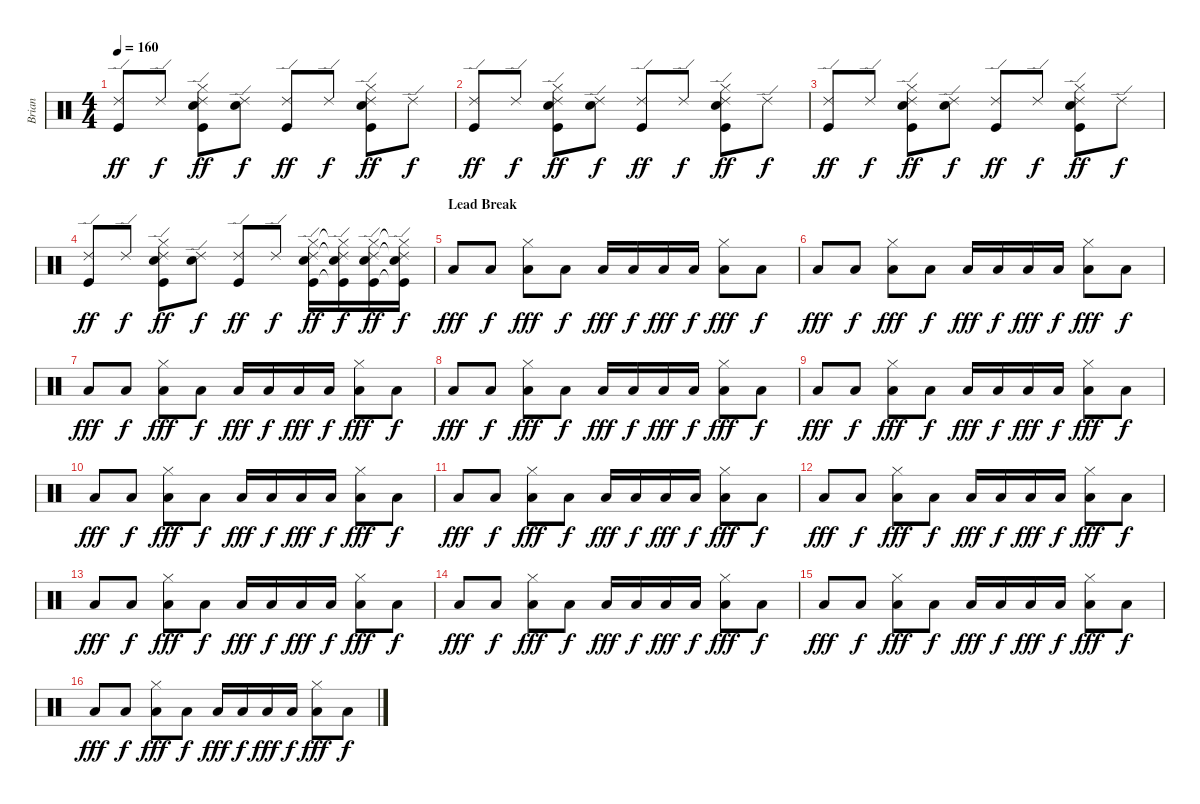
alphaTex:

\track ("Brian" "Brian") {instrument percussion}
\staff {score}
\articulation defaults
\ts (4 4)
\tempo 160
\clef neutral
\ks c
("Ride (edge) 2" "Kick (hit)").8{dy ff} "Ride (edge) 2".8{dy f} ("Ride (edge) 2" "Hi-Hat (closed)" "Snare (hit) 2" "Kick (hit)").8{dy ff} ("Ride (edge) 2" "Snare (hit) 2").8{dy f} ("Ride (edge) 2" "Kick (hit)").8{dy ff} "Ride (edge) 2".8{dy f} ("Ride (edge) 2" "Hi-Hat (closed)" "Snare (hit) 2" "Kick (hit)").8{dy ff} "Ride (edge) 2".8{dy f} |
("Ride (edge) 2" "Kick (hit)").8{dy ff} "Ride (edge) 2".8{dy f} ("Ride (edge) 2" "Hi-Hat (closed)" "Snare (hit) 2" "Kick (hit)").8{dy ff} ("Ride (edge) 2" "Snare (hit) 2").8{dy f} ("Ride (edge) 2" "Kick (hit)").8{dy ff} "Ride (edge) 2".8{dy f} ("Ride (edge) 2" "Hi-Hat (closed)" "Snare (hit) 2" "Kick (hit)").8{dy ff} "Ride (edge) 2".8{dy f} |
("Ride (edge) 2" "Kick (hit)").8{dy ff} "Ride (edge) 2".8{dy f} ("Ride (edge) 2" "Hi-Hat (closed)" "Snare (hit) 2" "Kick (hit)").8{dy ff} ("Ride (edge) 2" "Snare (hit) 2").8{dy f} ("Ride (edge) 2" "Kick (hit)").8{dy ff} "Ride (edge) 2".8{dy f} ("Ride (edge) 2" "Hi-Hat (closed)" "Snare (hit) 2" "Kick (hit)").8{dy ff} "Ride (edge) 2".8{dy f} |
("Ride (edge) 2" "Kick (hit)").8{dy ff} "Ride (edge) 2".8{dy f} ("Ride (edge) 2" "Hi-Hat (closed)" "Snare (hit) 2" "Kick (hit)").8{dy ff} ("Ride (edge) 2" "Snare (hit) 2").8{dy f} ("Ride (edge) 2" "Kick (hit)").8{dy ff} "Ride (edge) 2".8{dy f} ("Ride (edge) 2" "Hi-Hat (closed)" "Snare (hit) 2" "Kick (hit)").16{dy ff} ("Ride (edge) 2"{t} "Hi-Hat (closed)"{t} "Snare (hit) 2" "Kick (hit)"{t}).16{dy f} ("Ride (edge) 2" "Hi-Hat (closed)" "Snare (hit) 2" "Kick (hit)").16{dy ff} ("Ride (edge) 2"{t} "Hi-Hat (closed)"{t} "Snare (hit) 2" "Kick (hit)"{t}).16{dy f} |
\section ("" "Lead Break")
"Low Tom (hit)".8{dy fff} "Low Tom (hit)".8{dy f} ("Hi-Hat (closed)" "Low Tom (hit)").8{dy fff} "Low Tom (hit)".8{dy f} "Low Tom (hit)".16{dy fff} "Low Tom (hit)".16{dy f} "Low Tom (hit)".16{dy fff} "Low Tom (hit)".16{dy f} ("Hi-Hat (closed)" "Low Tom (hit)").8{dy fff} "Low Tom (hit)".8{dy f} |
"Low Tom (hit)".8{dy fff} "Low Tom (hit)".8{dy f} ("Hi-Hat (closed)" "Low Tom (hit)").8{dy fff} "Low Tom (hit)".8{dy f} "Low Tom (hit)".16{dy fff} "Low Tom (hit)".16{dy f} "Low Tom (hit)".16{dy fff} "Low Tom (hit)".16{dy f} ("Hi-Hat (closed)" "Low Tom (hit)").8{dy fff} "Low Tom (hit)".8{dy f} |
"Low Tom (hit)".8{dy fff} "Low Tom (hit)".8{dy f} ("Hi-Hat (closed)" "Low Tom (hit)").8{dy fff} "Low Tom (hit)".8{dy f} "Low Tom (hit)".16{dy fff} "Low Tom (hit)".16{dy f} "Low Tom (hit)".16{dy fff} "Low Tom (hit)".16{dy f} ("Hi-Hat (closed)" "Low Tom (hit)").8{dy fff} "Low Tom (hit)".8{dy f} |
"Low Tom (hit)".8{dy fff} "Low Tom (hit)".8{dy f} ("Hi-Hat (closed)" "Low Tom (hit)").8{dy fff} "Low Tom (hit)".8{dy f} "Low Tom (hit)".16{dy fff} "Low Tom (hit)".16{dy f} "Low Tom (hit)".16{dy fff} "Low Tom (hit)".16{dy f} ("Hi-Hat (closed)" "Low Tom (hit)").8{dy fff} "Low Tom (hit)".8{dy f} |
"Low Tom (hit)".8{dy fff} "Low Tom (hit)".8{dy f} ("Hi-Hat (closed)" "Low Tom (hit)").8{dy fff} "Low Tom (hit)".8{dy f} "Low Tom (hit)".16{dy fff} "Low Tom (hit)".16{dy f} "Low Tom (hit)".16{dy fff} "Low Tom (hit)".16{dy f} ("Hi-Hat (closed)" "Low Tom (hit)").8{dy fff} "Low Tom (hit)".8{dy f} |
"Low Tom (hit)".8{dy fff} "Low Tom (hit)".8{dy f} ("Hi-Hat (closed)" "Low Tom (hit)").8{dy fff} "Low Tom (hit)".8{dy f} "Low Tom (hit)".16{dy fff} "Low Tom (hit)".16{dy f} "Low Tom (hit)".16{dy fff} "Low Tom (hit)".16{dy f} ("Hi-Hat (closed)" "Low Tom (hit)").8{dy fff} "Low Tom (hit)".8{dy f} |
"Low Tom (hit)".8{dy fff} "Low Tom (hit)".8{dy f} ("Hi-Hat (closed)" "Low Tom (hit)").8{dy fff} "Low Tom (hit)".8{dy f} "Low Tom (hit)".16{dy fff} "Low Tom (hit)".16{dy f} "Low Tom (hit)".16{dy fff} "Low Tom (hit)".16{dy f} ("Hi-Hat (closed)" "Low Tom (hit)").8{dy fff} "Low Tom (hit)".8{dy f} |
"Low Tom (hit)".8{dy fff} "Low Tom (hit)".8{dy f} ("Hi-Hat (closed)" "Low Tom (hit)").8{dy fff} "Low Tom (hit)".8{dy f} "Low Tom (hit)".16{dy fff} "Low Tom (hit)".16{dy f} "Low Tom (hit)".16{dy fff} "Low Tom (hit)".16{dy f} ("Hi-Hat (closed)" "Low Tom (hit)").8{dy fff} "Low Tom (hit)".8{dy f} |
"Low Tom (hit)".8{dy fff} "Low Tom (hit)".8{dy f} ("Hi-Hat (closed)" "Low Tom (hit)").8{dy fff} "Low Tom (hit)".8{dy f} "Low Tom (hit)".16{dy fff} "Low Tom (hit)".16{dy f} "Low Tom (hit)".16{dy fff} "Low Tom (hit)".16{dy f} ("Hi-Hat (closed)" "Low Tom (hit)").8{dy fff} "Low Tom (hit)".8{dy f} |
"Low Tom (hit)".8{dy fff} "Low Tom (hit)".8{dy f} ("Hi-Hat (closed)" "Low Tom (hit)").8{dy fff} "Low Tom (hit)".8{dy f} "Low Tom (hit)".16{dy fff} "Low Tom (hit)".16{dy f} "Low Tom (hit)".16{dy fff} "Low Tom (hit)".16{dy f} ("Hi-Hat (closed)" "Low Tom (hit)").8{dy fff} "Low Tom (hit)".8{dy f} |
"Low Tom (hit)".8{dy fff} "Low Tom (hit)".8{dy f} ("Hi-Hat (closed)" "Low Tom (hit)").8{dy fff} "Low Tom (hit)".8{dy f} "Low Tom (hit)".16{dy fff} "Low Tom (hit)".16{dy f} "Low Tom (hit)".16{dy fff} "Low Tom (hit)".16{dy f} ("Hi-Hat (closed)" "Low Tom (hit)").8{dy fff} "Low Tom (hit)".8{dy f} |
"Low Tom (hit)".8{dy fff} "Low Tom (hit)".8{dy f} ("Hi-Hat (closed)" "Low Tom (hit)").8{dy fff} "Low Tom (hit)".8{dy f} "Low Tom (hit)".16{dy fff} "Low Tom (hit)".16{dy f} "Low Tom (hit)".16{dy fff} "Low Tom (hit)".16{dy f} ("Hi-Hat (closed)" "Low Tom (hit)").8{dy fff} "Low Tom (hit)".8{dy f}
